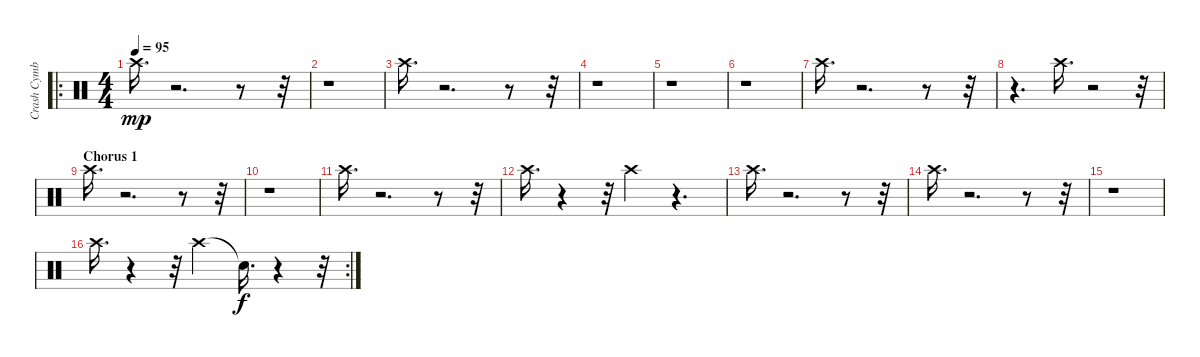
\track ("Crash Cymbal" "Crash Cymb") {instrument percussion}
\staff {score}
\articulation defaults
\ro
\ts (4 4)
\tempo 95
\clef neutral
\ks c "Crash high (hit)".16{d dy mp}
r.2{d} r.8 r.32 |
r.1 |
"Crash high (hit)".16{d} r.2{d} r.8 r.32 |
r.1 |
r.1 |
r.1 |
"Crash high (hit)".16{d} r.2{d} r.8 r.32 |
r.4{d} "Crash high (hit)".16{d} r.2 r.32 |
\section ("" "Chorus 1")
"Crash high (hit)".16{d} r.2{d} r.8 r.32 |
r.1 |
"Crash high (hit)".16{d} r.2{d} r.8 r.32 |
"Crash high (hit)".16{d} r.4 r.32 "Crash high (hit)".4 r.4{d} |
"Crash high (hit)".16{d} r.2{d} r.8 r.32 |
"Crash high (hit)".16{d} r.2{d} r.8 r.32 |
r.1 |
\rc 2 "Crash high (hit)".16{d}
r.4 r.32 "Crash high (hit)".4 "Snare (hit)"{t}.16{d dy f} r.4 r.32
